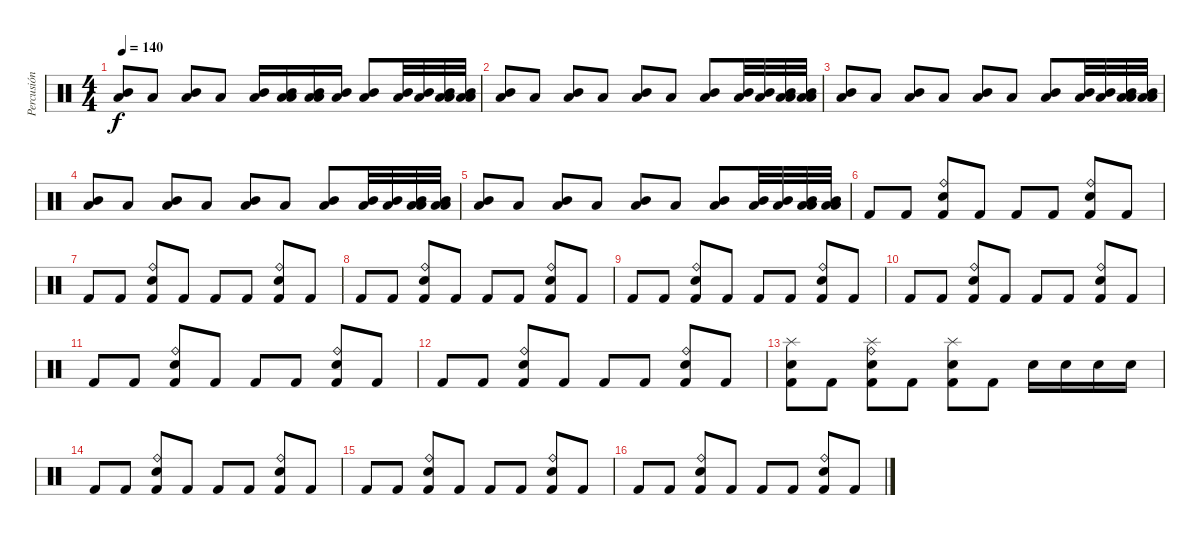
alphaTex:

\track ("Percusión" "Percusión") {instrument percussion}
\staff {score}
\articulation defaults
\ts (4 4)
\tempo 140
\clef neutral
\ks c
("Mid Tom (hit)" "Low Floor Tom (hit)").8{dy f} "Low Floor Tom (hit)".8 ("Mid Tom (hit)" "Low Floor Tom (hit)").8 "Low Floor Tom (hit)".8 ("Mid Tom (hit)" "Low Floor Tom (hit)").16 ("Mid Tom (hit)" "Low Tom (hit)" "Low Floor Tom (hit)").16 ("Mid Tom (hit)" "Low Tom (hit)" "Low Floor Tom (hit)").16 ("Mid Tom (hit)" "Low Floor Tom (hit)").16 ("Mid Tom (hit)" "Low Floor Tom (hit)").8 ("Mid Tom (hit)" "Low Floor Tom (hit)").32 ("Mid Tom (hit)" "Low Floor Tom (hit)").32 ("Mid Tom (hit)" "Low Tom (hit)" "Low Floor Tom (hit)").32 ("Mid Tom (hit)" "Low Tom (hit)" "Low Floor Tom (hit)").32 |
("Mid Tom (hit)" "Low Floor Tom (hit)").8 "Low Floor Tom (hit)".8 ("Mid Tom (hit)" "Low Floor Tom (hit)").8 "Low Floor Tom (hit)".8 ("Mid Tom (hit)" "Low Floor Tom (hit)").8 "Low Floor Tom (hit)".8 ("Mid Tom (hit)" "Low Floor Tom (hit)").8 ("Mid Tom (hit)" "Low Floor Tom (hit)").32 ("Mid Tom (hit)" "Low Floor Tom (hit)").32 ("Mid Tom (hit)" "Low Tom (hit)" "Low Floor Tom (hit)").32 ("Mid Tom (hit)" "Low Tom (hit)" "Low Floor Tom (hit)").32 |
("Mid Tom (hit)" "Low Floor Tom (hit)").8 "Low Floor Tom (hit)".8 ("Mid Tom (hit)" "Low Floor Tom (hit)").8 "Low Floor Tom (hit)".8 ("Mid Tom (hit)" "Low Floor Tom (hit)").8 "Low Floor Tom (hit)".8 ("Mid Tom (hit)" "Low Floor Tom (hit)").8 ("Mid Tom (hit)" "Low Floor Tom (hit)").32 ("Mid Tom (hit)" "Low Floor Tom (hit)").32 ("Mid Tom (hit)" "Low Tom (hit)" "Low Floor Tom (hit)").32 ("Mid Tom (hit)" "Low Tom (hit)" "Low Floor Tom (hit)").32 |
("Mid Tom (hit)" "Low Floor Tom (hit)").8 "Low Floor Tom (hit)".8 ("Mid Tom (hit)" "Low Floor Tom (hit)").8 "Low Floor Tom (hit)".8 ("Mid Tom (hit)" "Low Floor Tom (hit)").8 "Low Floor Tom (hit)".8 ("Mid Tom (hit)" "Low Floor Tom (hit)").8 ("Mid Tom (hit)" "Low Floor Tom (hit)").32 ("Mid Tom (hit)" "Low Floor Tom (hit)").32 ("Mid Tom (hit)" "Low Tom (hit)" "Low Floor Tom (hit)").32 ("Mid Tom (hit)" "Low Tom (hit)" "Low Floor Tom (hit)").32 |
("Mid Tom (hit)" "Low Floor Tom (hit)").8 "Low Floor Tom (hit)".8 ("Mid Tom (hit)" "Low Floor Tom (hit)").8 "Low Floor Tom (hit)".8 ("Mid Tom (hit)" "Low Floor Tom (hit)").8 "Low Floor Tom (hit)".8 ("Mid Tom (hit)" "Low Floor Tom (hit)").8 ("Mid Tom (hit)" "Low Floor Tom (hit)").32 ("Mid Tom (hit)" "Low Floor Tom (hit)").32 ("Mid Tom (hit)" "Low Tom (hit)" "Low Floor Tom (hit)").32 ("Mid Tom (hit)" "Low Tom (hit)" "Low Floor Tom (hit)").32 |
"Kick (hit) 2".8 "Kick (hit) 2".8 ("Ride (bell)" "Electric Snare (hit)" "Kick (hit) 2").8 "Kick (hit) 2".8 "Kick (hit) 2".8 "Kick (hit) 2".8 ("Ride (bell)" "Electric Snare (hit)" "Kick (hit) 2").8 "Kick (hit) 2".8 |
"Kick (hit) 2".8 "Kick (hit) 2".8 ("Ride (bell)" "Electric Snare (hit)" "Kick (hit) 2").8 "Kick (hit) 2".8 "Kick (hit) 2".8 "Kick (hit) 2".8 ("Ride (bell)" "Electric Snare (hit)" "Kick (hit) 2").8 "Kick (hit) 2".8 |
"Kick (hit) 2".8 "Kick (hit) 2".8 ("Ride (bell)" "Electric Snare (hit)" "Kick (hit) 2").8 "Kick (hit) 2".8 "Kick (hit) 2".8 "Kick (hit) 2".8 ("Ride (bell)" "Electric Snare (hit)" "Kick (hit) 2").8 "Kick (hit) 2".8 |
"Kick (hit) 2".8 "Kick (hit) 2".8 ("Ride (bell)" "Electric Snare (hit)" "Kick (hit) 2").8 "Kick (hit) 2".8 "Kick (hit) 2".8 "Kick (hit) 2".8 ("Ride (bell)" "Electric Snare (hit)" "Kick (hit) 2").8 "Kick (hit) 2".8 |
"Kick (hit) 2".8 "Kick (hit) 2".8 ("Ride (bell)" "Electric Snare (hit)" "Kick (hit) 2").8 "Kick (hit) 2".8 "Kick (hit) 2".8 "Kick (hit) 2".8 ("Ride (bell)" "Electric Snare (hit)" "Kick (hit) 2").8 "Kick (hit) 2".8 |
"Kick (hit) 2".8 "Kick (hit) 2".8 ("Ride (bell)" "Electric Snare (hit)" "Kick (hit) 2").8 "Kick (hit) 2".8 "Kick (hit) 2".8 "Kick (hit) 2".8 ("Ride (bell)" "Electric Snare (hit)" "Kick (hit) 2").8 "Kick (hit) 2".8 |
"Kick (hit) 2".8 "Kick (hit) 2".8 ("Ride (bell)" "Electric Snare (hit)" "Kick (hit) 2").8 "Kick (hit) 2".8 "Kick (hit) 2".8 "Kick (hit) 2".8 ("Ride (bell)" "Electric Snare (hit)" "Kick (hit) 2").8 "Kick (hit) 2".8 |
("Splash (hit)" "Electric Snare (hit)" "Kick (hit) 2").8 "Kick (hit) 2".8 ("Ride (bell)" "Splash (hit)" "Electric Snare (hit)" "Kick (hit) 2").8 "Kick (hit) 2".8 ("Splash (hit)" "Electric Snare (hit)" "Kick (hit) 2").8 "Kick (hit) 2".8 "Electric Snare (hit)".16 "Electric Snare (hit)".16 "Electric Snare (hit)".16 "Electric Snare (hit)".16 |
"Kick (hit) 2".8 "Kick (hit) 2".8 ("Ride (bell)" "Electric Snare (hit)" "Kick (hit) 2").8 "Kick (hit) 2".8 "Kick (hit) 2".8 "Kick (hit) 2".8 ("Ride (bell)" "Electric Snare (hit)" "Kick (hit) 2").8 "Kick (hit) 2".8 |
"Kick (hit) 2".8 "Kick (hit) 2".8 ("Ride (bell)" "Electric Snare (hit)" "Kick (hit) 2").8 "Kick (hit) 2".8 "Kick (hit) 2".8 "Kick (hit) 2".8 ("Ride (bell)" "Electric Snare (hit)" "Kick (hit) 2").8 "Kick (hit) 2".8 |
"Kick (hit) 2".8 "Kick (hit) 2".8 ("Ride (bell)" "Electric Snare (hit)" "Kick (hit) 2").8 "Kick (hit) 2".8 "Kick (hit) 2".8 "Kick (hit) 2".8 ("Ride (bell)" "Electric Snare (hit)" "Kick (hit) 2").8 "Kick (hit) 2".8
